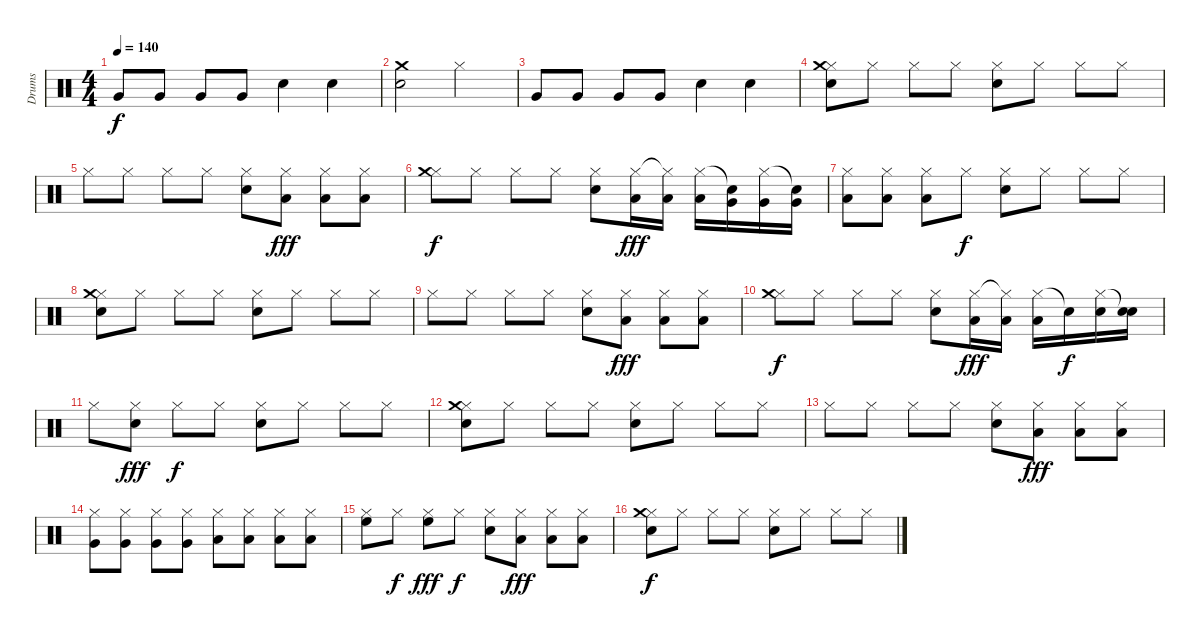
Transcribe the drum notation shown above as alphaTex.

\track ("Drums" "Drums") {instrument percussion}
\staff {score}
\articulation defaults
\ts (4 4)
\tempo 140
\clef neutral
\ks c "Very Low Tom (hit)".8{dy f} "Very Low Tom (hit)".8 "Very Low Tom (hit)".8 "Very Low Tom (hit)".8 "Snare (hit) 2".4 "Snare (hit) 2".4
|
("Snare (hit) 2" "Crash medium (hit)").2 "Hi-Hat (closed)".2 |
"Very Low Tom (hit)".8 "Very Low Tom (hit)".8 "Very Low Tom (hit)".8 "Very Low Tom (hit)".8 "Snare (hit) 2".4 "Snare (hit) 2".4 |
("Hi-Hat (closed)" "Snare (hit) 2" "Crash medium (hit)").8 "Hi-Hat (closed)".8 "Hi-Hat (closed)".8 "Hi-Hat (closed)".8 ("Hi-Hat (closed)" "Snare (hit) 2").8 "Hi-Hat (closed)".8 "Hi-Hat (closed)".8 "Hi-Hat (closed)".8 |
"Hi-Hat (closed)".8 "Hi-Hat (closed)".8 "Hi-Hat (closed)".8 "Hi-Hat (closed)".8 ("Hi-Hat (closed)" "Snare (hit) 2").8 ("Hi-Hat (closed)" "Low Floor Tom (hit)").8{dy fff} ("Hi-Hat (closed)" "Low Floor Tom (hit)").8 ("Hi-Hat (closed)" "Low Floor Tom (hit)").8 |
("Hi-Hat (closed)" "Crash medium (hit)").8{dy f} "Hi-Hat (closed)".8 "Hi-Hat (closed)".8 "Hi-Hat (closed)".8 ("Hi-Hat (closed)" "Snare (hit) 2").8 ("Hi-Hat (closed)" "Low Floor Tom (hit)").16{dy fff} ("Hi-Hat (closed)"{t} "Low Floor Tom (hit)").16 ("Hi-Hat (closed)" "Low Floor Tom (hit)").16 ("Snare (hit)"{t} "Very Low Tom (hit)").16 ("Hi-Hat (closed)" "Very Low Tom (hit)").16 ("Snare (hit)"{t} "Very Low Tom (hit)").16 |
("Hi-Hat (closed)" "Low Tom (hit)").8 ("Hi-Hat (closed)" "Low Tom (hit)").8 ("Hi-Hat (closed)" "Low Tom (hit)").8 "Hi-Hat (closed)".8{dy f} ("Hi-Hat (closed)" "Snare (hit) 2").8 "Hi-Hat (closed)".8 "Hi-Hat (closed)".8 "Hi-Hat (closed)".8 |
("Hi-Hat (closed)" "Snare (hit) 2" "Crash medium (hit)").8 "Hi-Hat (closed)".8 "Hi-Hat (closed)".8 "Hi-Hat (closed)".8 ("Hi-Hat (closed)" "Snare (hit) 2").8 "Hi-Hat (closed)".8 "Hi-Hat (closed)".8 "Hi-Hat (closed)".8 |
"Hi-Hat (closed)".8 "Hi-Hat (closed)".8 "Hi-Hat (closed)".8 "Hi-Hat (closed)".8 ("Hi-Hat (closed)" "Snare (hit) 2").8 ("Hi-Hat (closed)" "Low Floor Tom (hit)").8{dy fff} ("Hi-Hat (closed)" "Low Floor Tom (hit)").8 ("Hi-Hat (closed)" "Low Floor Tom (hit)").8 |
("Hi-Hat (closed)" "Crash medium (hit)").8{dy f} "Hi-Hat (closed)".8 "Hi-Hat (closed)".8 "Hi-Hat (closed)".8 ("Hi-Hat (closed)" "Snare (hit) 2").8 ("Hi-Hat (closed)" "Low Floor Tom (hit)").16{dy fff} ("Hi-Hat (closed)"{t} "Low Floor Tom (hit)").16 ("Hi-Hat (closed)" "Low Floor Tom (hit)").16 "Snare (hit)"{t}.16{dy f} ("Hi-Hat (closed)" "Snare (hit) 2").16 ("Snare (hit)"{t} "Snare (hit) 2").16 |
"Hi-Hat (closed)".8 ("Hi-Hat (closed)" "Snare (hit) 2").8{dy fff} "Hi-Hat (closed)".8{dy f} "Hi-Hat (closed)".8 ("Hi-Hat (closed)" "Snare (hit) 2").8 "Hi-Hat (closed)".8 "Hi-Hat (closed)".8 "Hi-Hat (closed)".8 |
("Hi-Hat (closed)" "Snare (hit) 2" "Crash medium (hit)").8 "Hi-Hat (closed)".8 "Hi-Hat (closed)".8 "Hi-Hat (closed)".8 ("Hi-Hat (closed)" "Snare (hit) 2").8 "Hi-Hat (closed)".8 "Hi-Hat (closed)".8 "Hi-Hat (closed)".8 |
"Hi-Hat (closed)".8 "Hi-Hat (closed)".8 "Hi-Hat (closed)".8 "Hi-Hat (closed)".8 ("Hi-Hat (closed)" "Snare (hit) 2").8 ("Hi-Hat (closed)" "Low Floor Tom (hit)").8{dy fff} ("Hi-Hat (closed)" "Low Floor Tom (hit)").8 ("Hi-Hat (closed)" "Low Floor Tom (hit)").8 |
("Hi-Hat (closed)" "Very Low Tom (hit)").8 ("Hi-Hat (closed)" "Very Low Tom (hit)").8 ("Hi-Hat (closed)" "Very Low Tom (hit)").8 ("Hi-Hat (closed)" "Very Low Tom (hit)").8 ("Hi-Hat (closed)" "Low Tom (hit)").8 ("Hi-Hat (closed)" "Low Tom (hit)").8 ("Hi-Hat (closed)" "Low Tom (hit)").8 ("Hi-Hat (closed)" "Low Tom (hit)").8 |
("Hi-Hat (closed)" "High Floor Tom (hit)").8 "Hi-Hat (closed)".8{dy f} ("Hi-Hat (closed)" "High Floor Tom (hit)").8{dy fff} "Hi-Hat (closed)".8{dy f} ("Hi-Hat (closed)" "Snare (hit) 2").8 ("Hi-Hat (closed)" "Low Floor Tom (hit)").8{dy fff} ("Hi-Hat (closed)" "Low Floor Tom (hit)").8 ("Hi-Hat (closed)" "Low Floor Tom (hit)").8 |
("Hi-Hat (closed)" "Snare (hit) 2" "Crash medium (hit)").8{dy f} "Hi-Hat (closed)".8 "Hi-Hat (closed)".8 "Hi-Hat (closed)".8 ("Hi-Hat (closed)" "Snare (hit) 2").8 "Hi-Hat (closed)".8 "Hi-Hat (closed)".8 "Hi-Hat (closed)".8
